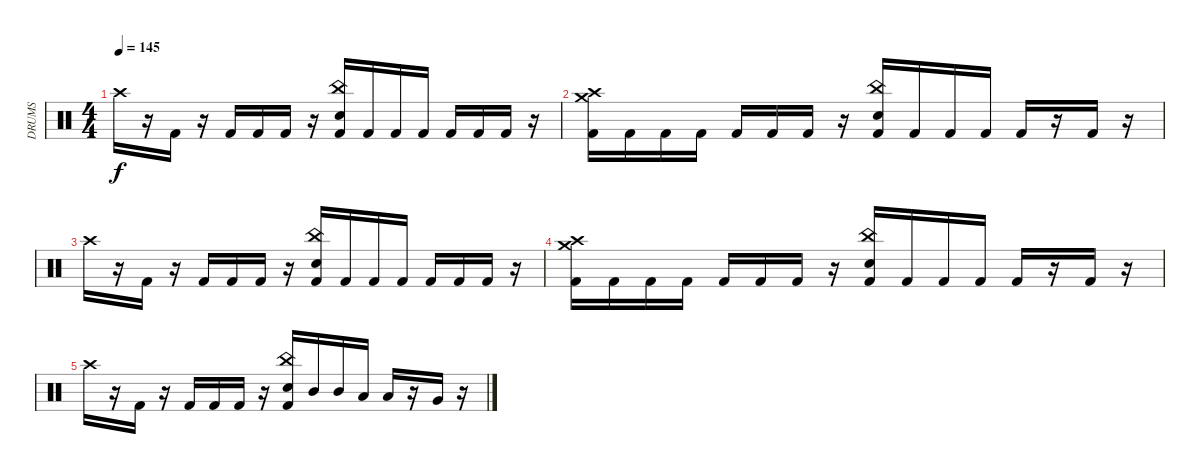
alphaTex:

\track ("DRUMS" "DRUMS") {instrument percussion}
\staff {score}
\articulation defaults
\ts (4 4)
\tempo 145
\clef neutral
\ks c "Crash high (hit)".16{dy f}
r.16 "Kick (hit) 2".16 r.16 "Kick (hit) 2".16 "Kick (hit) 2".16 "Kick (hit) 2".16 r.16 ("China (hit)" "Electric Snare (hit)" "Kick (hit) 2").16 "Kick (hit) 2".16 "Kick (hit) 2".16 "Kick (hit) 2".16 "Kick (hit) 2".16 "Kick (hit) 2".16 "Kick (hit) 2".16 r.16 |
("Crash medium (hit)" "Crash high (hit)" "Kick (hit) 2").16 "Kick (hit) 2".16 "Kick (hit) 2".16 "Kick (hit) 2".16 "Kick (hit) 2".16 "Kick (hit) 2".16 "Kick (hit) 2".16 r.16 ("China (hit)" "Electric Snare (hit)" "Kick (hit) 2").16 "Kick (hit) 2".16 "Kick (hit) 2".16 "Kick (hit) 2".16 "Kick (hit) 2".16 r.16 "Kick (hit) 2".16 r.16 |
"Crash high (hit)".16 r.16 "Kick (hit) 2".16 r.16 "Kick (hit) 2".16 "Kick (hit) 2".16 "Kick (hit) 2".16 r.16 ("China (hit)" "Electric Snare (hit)" "Kick (hit) 2").16 "Kick (hit) 2".16 "Kick (hit) 2".16 "Kick (hit) 2".16 "Kick (hit) 2".16 "Kick (hit) 2".16 "Kick (hit) 2".16 r.16 |
("Crash medium (hit)" "Crash high (hit)" "Kick (hit) 2").16 "Kick (hit) 2".16 "Kick (hit) 2".16 "Kick (hit) 2".16 "Kick (hit) 2".16 "Kick (hit) 2".16 "Kick (hit) 2".16 r.16 ("China (hit)" "Electric Snare (hit)" "Kick (hit) 2").16 "Kick (hit) 2".16 "Kick (hit) 2".16 "Kick (hit) 2".16 "Kick (hit) 2".16 r.16 "Kick (hit) 2".16 r.16 |
"Crash high (hit)".16 r.16 "Kick (hit) 2".16 r.16 "Kick (hit) 2".16 "Kick (hit) 2".16 "Kick (hit) 2".16 r.16 ("China (hit)" "Electric Snare (hit)" "Kick (hit) 2").16 "Mid Tom (hit)".16 "Mid Tom (hit)".16 "Low Tom (hit)".16 "Low Tom (hit)".16 r.16 "Very Low Tom (hit)".16 r.16
